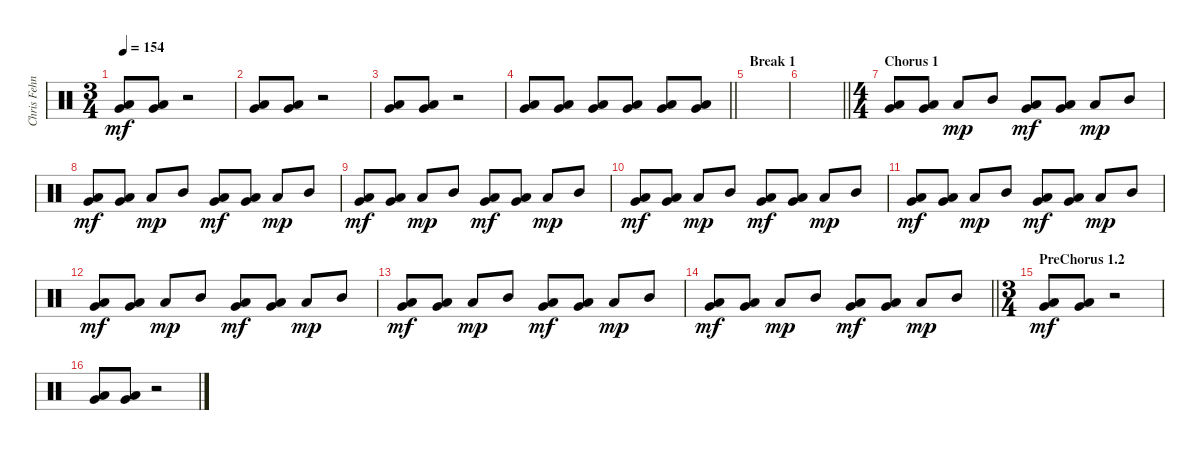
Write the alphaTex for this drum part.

\track ("Chris Fehn" "Chris Fehn") {instrument percussion}
\staff {score}
\articulation defaults
\ts (3 4)
\tempo 154
\clef neutral
\ks c
("Very Low Tom (hit)" "Low Floor Tom (hit)").8{dy mf} ("Very Low Tom (hit)" "Low Floor Tom (hit)").8 r.2 |
("Very Low Tom (hit)" "Low Floor Tom (hit)").8 ("Very Low Tom (hit)" "Low Floor Tom (hit)").8 r.2 |
("Very Low Tom (hit)" "Low Floor Tom (hit)").8 ("Very Low Tom (hit)" "Low Floor Tom (hit)").8 r.2 |
\barLineRight lightlight
("Very Low Tom (hit)" "Low Floor Tom (hit)").8 ("Very Low Tom (hit)" "Low Floor Tom (hit)").8 ("Very Low Tom (hit)" "Low Floor Tom (hit)").8 ("Very Low Tom (hit)" "Low Floor Tom (hit)").8 ("Very Low Tom (hit)" "Low Floor Tom (hit)").8 ("Very Low Tom (hit)" "Low Floor Tom (hit)").8 |
\section ("" "Break 1")
|
\barLineRight lightlight
|
\ts (4 4)
\section ("" "Chorus 1")
("Very Low Tom (hit)" "Low Floor Tom (hit)").8 ("Very Low Tom (hit)" "Low Floor Tom (hit)").8 "Low Tom (hit)".8{dy mp} "Mid Tom (hit)".8 ("Very Low Tom (hit)" "Low Floor Tom (hit)").8{dy mf} ("Very Low Tom (hit)" "Low Floor Tom (hit)").8 "Low Tom (hit)".8{dy mp} "Mid Tom (hit)".8 |
("Very Low Tom (hit)" "Low Floor Tom (hit)").8{dy mf} ("Very Low Tom (hit)" "Low Floor Tom (hit)").8 "Low Tom (hit)".8{dy mp} "Mid Tom (hit)".8 ("Very Low Tom (hit)" "Low Floor Tom (hit)").8{dy mf} ("Very Low Tom (hit)" "Low Floor Tom (hit)").8 "Low Tom (hit)".8{dy mp} "Mid Tom (hit)".8 |
("Very Low Tom (hit)" "Low Floor Tom (hit)").8{dy mf} ("Very Low Tom (hit)" "Low Floor Tom (hit)").8 "Low Tom (hit)".8{dy mp} "Mid Tom (hit)".8 ("Very Low Tom (hit)" "Low Floor Tom (hit)").8{dy mf} ("Very Low Tom (hit)" "Low Floor Tom (hit)").8 "Low Tom (hit)".8{dy mp} "Mid Tom (hit)".8 |
("Very Low Tom (hit)" "Low Floor Tom (hit)").8{dy mf} ("Very Low Tom (hit)" "Low Floor Tom (hit)").8 "Low Tom (hit)".8{dy mp} "Mid Tom (hit)".8 ("Very Low Tom (hit)" "Low Floor Tom (hit)").8{dy mf} ("Very Low Tom (hit)" "Low Floor Tom (hit)").8 "Low Tom (hit)".8{dy mp} "Mid Tom (hit)".8 |
("Very Low Tom (hit)" "Low Floor Tom (hit)").8{dy mf} ("Very Low Tom (hit)" "Low Floor Tom (hit)").8 "Low Tom (hit)".8{dy mp} "Mid Tom (hit)".8 ("Very Low Tom (hit)" "Low Floor Tom (hit)").8{dy mf} ("Very Low Tom (hit)" "Low Floor Tom (hit)").8 "Low Tom (hit)".8{dy mp} "Mid Tom (hit)".8 |
("Very Low Tom (hit)" "Low Floor Tom (hit)").8{dy mf} ("Very Low Tom (hit)" "Low Floor Tom (hit)").8 "Low Tom (hit)".8{dy mp} "Mid Tom (hit)".8 ("Very Low Tom (hit)" "Low Floor Tom (hit)").8{dy mf} ("Very Low Tom (hit)" "Low Floor Tom (hit)").8 "Low Tom (hit)".8{dy mp} "Mid Tom (hit)".8 |
("Very Low Tom (hit)" "Low Floor Tom (hit)").8{dy mf} ("Very Low Tom (hit)" "Low Floor Tom (hit)").8 "Low Tom (hit)".8{dy mp} "Mid Tom (hit)".8 ("Very Low Tom (hit)" "Low Floor Tom (hit)").8{dy mf} ("Very Low Tom (hit)" "Low Floor Tom (hit)").8 "Low Tom (hit)".8{dy mp} "Mid Tom (hit)".8 |
\barLineRight lightlight
("Very Low Tom (hit)" "Low Floor Tom (hit)").8{dy mf} ("Very Low Tom (hit)" "Low Floor Tom (hit)").8 "Low Tom (hit)".8{dy mp} "Mid Tom (hit)".8 ("Very Low Tom (hit)" "Low Floor Tom (hit)").8{dy mf} ("Very Low Tom (hit)" "Low Floor Tom (hit)").8 "Low Tom (hit)".8{dy mp} "Mid Tom (hit)".8 |
\ts (3 4)
\section ("" "PreChorus 1.2")
("Very Low Tom (hit)" "Low Floor Tom (hit)").8{dy mf} ("Very Low Tom (hit)" "Low Floor Tom (hit)").8 r.2 |
("Very Low Tom (hit)" "Low Floor Tom (hit)").8 ("Very Low Tom (hit)" "Low Floor Tom (hit)").8 r.2
